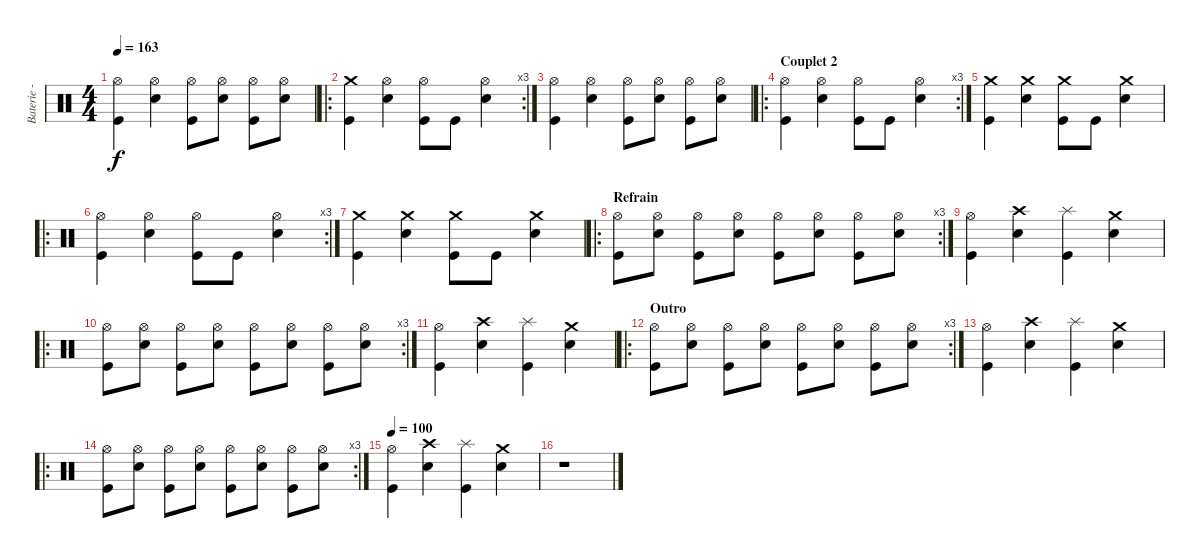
\track ("Baterie - Alex" "Baterie - ") {instrument percussion}
\staff {score}
\articulation defaults
\ts (4 4)
\tempo 163
\clef neutral
\ks c
("Hi-Hat (open)" "Kick (hit)").4{dy f} ("Hi-Hat (open)" "Electric Snare (hit)").4 ("Hi-Hat (open)" "Kick (hit)").8 ("Hi-Hat (open)" "Electric Snare (hit)").8 ("Hi-Hat (open)" "Kick (hit)").8 ("Hi-Hat (open)" "Electric Snare (hit)").8 |
\ro
\rc 3
("Crash medium (hit)" "Kick (hit)").4 ("Hi-Hat (open)" "Electric Snare (hit)").4 ("Hi-Hat (open)" "Kick (hit)").8 "Kick (hit)".8 ("Hi-Hat (open)" "Electric Snare (hit)").4 |
("Hi-Hat (open)" "Kick (hit)").4 ("Hi-Hat (open)" "Electric Snare (hit)").4 ("Hi-Hat (open)" "Kick (hit)").8 ("Hi-Hat (open)" "Electric Snare (hit)").8 ("Hi-Hat (open)" "Kick (hit)").8 ("Hi-Hat (open)" "Electric Snare (hit)").8 |
\ro
\rc 3
\section ("" "Couplet 2")
("Hi-Hat (open)" "Kick (hit)").4 ("Hi-Hat (open)" "Electric Snare (hit)").4 ("Hi-Hat (open)" "Kick (hit)").8 "Kick (hit)".8 ("Hi-Hat (open)" "Electric Snare (hit)").4 |
("Crash medium (hit)" "Kick (hit)").4 ("Crash medium (hit)" "Electric Snare (hit)").4 ("Crash medium (hit)" "Kick (hit)").8 "Kick (hit)".8 ("Crash medium (hit)" "Electric Snare (hit)").4 |
\ro
\rc 3
("Hi-Hat (open)" "Kick (hit)").4 ("Hi-Hat (open)" "Electric Snare (hit)").4 ("Hi-Hat (open)" "Kick (hit)").8 "Kick (hit)".8 ("Hi-Hat (open)" "Electric Snare (hit)").4 |
("Crash medium (hit)" "Kick (hit)").4 ("Crash medium (hit)" "Electric Snare (hit)").4 ("Crash medium (hit)" "Kick (hit)").8 "Kick (hit)".8 ("Crash medium (hit)" "Electric Snare (hit)").4 |
\ro
\rc 3
\section ("" "Refrain")
("Hi-Hat (open)" "Kick (hit)").8 ("Hi-Hat (open)" "Electric Snare (hit)").8 ("Hi-Hat (open)" "Kick (hit)").8 ("Hi-Hat (open)" "Electric Snare (hit)").8 ("Hi-Hat (open)" "Kick (hit)").8 ("Hi-Hat (open)" "Electric Snare (hit)").8 ("Hi-Hat (open)" "Kick (hit)").8 ("Hi-Hat (open)" "Electric Snare (hit)").8 |
("Hi-Hat (open)" "Kick (hit)").4 ("Crash high (hit)" "Electric Snare (hit)").4 ("Splash (hit)" "Kick (hit)").4 ("Crash medium (hit)" "Electric Snare (hit)").4 |
\ro
\rc 3
("Hi-Hat (open)" "Kick (hit)").8 ("Hi-Hat (open)" "Electric Snare (hit)").8 ("Hi-Hat (open)" "Kick (hit)").8 ("Hi-Hat (open)" "Electric Snare (hit)").8 ("Hi-Hat (open)" "Kick (hit)").8 ("Hi-Hat (open)" "Electric Snare (hit)").8 ("Hi-Hat (open)" "Kick (hit)").8 ("Hi-Hat (open)" "Electric Snare (hit)").8 |
("Hi-Hat (open)" "Kick (hit)").4 ("Crash high (hit)" "Electric Snare (hit)").4 ("Splash (hit)" "Kick (hit)").4 ("Crash medium (hit)" "Electric Snare (hit)").4 |
\ro
\rc 3
\section ("" "Outro")
("Hi-Hat (open)" "Kick (hit)").8 ("Hi-Hat (open)" "Electric Snare (hit)").8 ("Hi-Hat (open)" "Kick (hit)").8 ("Hi-Hat (open)" "Electric Snare (hit)").8 ("Hi-Hat (open)" "Kick (hit)").8 ("Hi-Hat (open)" "Electric Snare (hit)").8 ("Hi-Hat (open)" "Kick (hit)").8 ("Hi-Hat (open)" "Electric Snare (hit)").8 |
("Hi-Hat (open)" "Kick (hit)").4 ("Crash high (hit)" "Electric Snare (hit)").4 ("Splash (hit)" "Kick (hit)").4 ("Crash medium (hit)" "Electric Snare (hit)").4 |
\ro
\rc 3
("Hi-Hat (open)" "Kick (hit)").8 ("Hi-Hat (open)" "Electric Snare (hit)").8 ("Hi-Hat (open)" "Kick (hit)").8 ("Hi-Hat (open)" "Electric Snare (hit)").8 ("Hi-Hat (open)" "Kick (hit)").8 ("Hi-Hat (open)" "Electric Snare (hit)").8 ("Hi-Hat (open)" "Kick (hit)").8 ("Hi-Hat (open)" "Electric Snare (hit)").8 |
\tempo 100
("Hi-Hat (open)" "Kick (hit)").4 ("Crash high (hit)" "Electric Snare (hit)").4 ("Splash (hit)" "Kick (hit)").4 ("Crash medium (hit)" "Electric Snare (hit)").4 |
r.1
